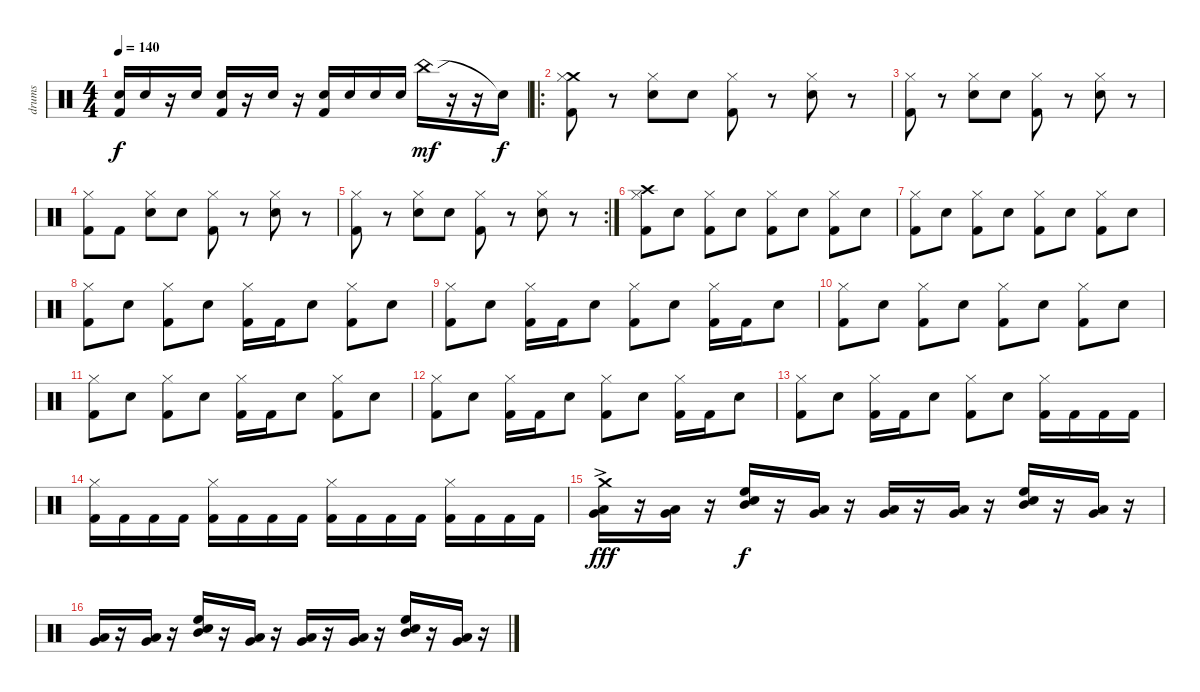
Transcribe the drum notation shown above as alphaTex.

\track ("drums" "drums") {instrument percussion}
\staff {score}
\articulation defaults
\ts (4 4)
\tempo 140
\clef neutral
\ks c
("Electric Snare (hit)" "Kick (hit) 2").16{dy f} "Electric Snare (hit)".16 r.16 "Electric Snare (hit)".16 ("Electric Snare (hit)" "Kick (hit) 2").16 r.16 "Electric Snare (hit)".16 r.16 ("Electric Snare (hit)" "Kick (hit) 2").16 "Electric Snare (hit)".16 "Electric Snare (hit)".16 "Electric Snare (hit)".16 "China (hit)"{sou}.16{dy mf} r.16 r.16 "Snare (hit)"{t}.16{dy f} |
\ro
("Crash medium (hit)" "Hi-Hat (closed)" "Kick (hit) 2").8 r.8 ("Hi-Hat (closed)" "Electric Snare (hit)").8 "Electric Snare (hit)".8 ("Hi-Hat (closed)" "Kick (hit) 2").8 r.8 ("Hi-Hat (closed)" "Electric Snare (hit)").8 r.8 |
("Hi-Hat (closed)" "Kick (hit) 2").8 r.8 ("Hi-Hat (closed)" "Electric Snare (hit)").8 "Electric Snare (hit)".8 ("Hi-Hat (closed)" "Kick (hit) 2").8 r.8 ("Hi-Hat (closed)" "Electric Snare (hit)").8 r.8 |
("Hi-Hat (closed)" "Kick (hit) 2").8 "Kick (hit) 2".8 ("Hi-Hat (closed)" "Electric Snare (hit)").8 "Electric Snare (hit)".8 ("Hi-Hat (closed)" "Kick (hit) 2").8 r.8 ("Hi-Hat (closed)" "Electric Snare (hit)").8 r.8 |
\rc 2
("Hi-Hat (closed)" "Kick (hit) 2").8 r.8 ("Hi-Hat (closed)" "Electric Snare (hit)").8 "Electric Snare (hit)".8 ("Hi-Hat (closed)" "Kick (hit) 2").8 r.8 ("Hi-Hat (closed)" "Electric Snare (hit)").8 r.8 |
("Crash high (hit)" "Hi-Hat (closed)" "Kick (hit) 2").8 "Electric Snare (hit)".8 ("Hi-Hat (closed)" "Kick (hit) 2").8 "Electric Snare (hit)".8 ("Hi-Hat (closed)" "Kick (hit) 2").8 "Electric Snare (hit)".8 ("Hi-Hat (closed)" "Kick (hit) 2").8 "Electric Snare (hit)".8 |
("Hi-Hat (closed)" "Kick (hit) 2").8 "Electric Snare (hit)".8 ("Hi-Hat (closed)" "Kick (hit) 2").8 "Electric Snare (hit)".8 ("Hi-Hat (closed)" "Kick (hit) 2").8 "Electric Snare (hit)".8 ("Hi-Hat (closed)" "Kick (hit) 2").8 "Electric Snare (hit)".8 |
("Hi-Hat (closed)" "Kick (hit) 2").8 "Electric Snare (hit)".8 ("Hi-Hat (closed)" "Kick (hit) 2").8 "Electric Snare (hit)".8 ("Hi-Hat (closed)" "Kick (hit) 2").16 "Kick (hit) 2".16 "Electric Snare (hit)".8 ("Hi-Hat (closed)" "Kick (hit) 2").8 "Electric Snare (hit)".8 |
("Hi-Hat (closed)" "Kick (hit) 2").8 "Electric Snare (hit)".8 ("Hi-Hat (closed)" "Kick (hit) 2").16 "Kick (hit) 2".16 "Electric Snare (hit)".8 ("Hi-Hat (closed)" "Kick (hit) 2").8 "Electric Snare (hit)".8 ("Hi-Hat (closed)" "Kick (hit) 2").16 "Kick (hit) 2".16 "Electric Snare (hit)".8 |
("Hi-Hat (closed)" "Kick (hit) 2").8 "Electric Snare (hit)".8 ("Hi-Hat (closed)" "Kick (hit) 2").8 "Electric Snare (hit)".8 ("Hi-Hat (closed)" "Kick (hit) 2").8 "Electric Snare (hit)".8 ("Hi-Hat (closed)" "Kick (hit) 2").8 "Electric Snare (hit)".8 |
("Hi-Hat (closed)" "Kick (hit) 2").8 "Electric Snare (hit)".8 ("Hi-Hat (closed)" "Kick (hit) 2").8 "Electric Snare (hit)".8 ("Hi-Hat (closed)" "Kick (hit) 2").16 "Kick (hit) 2".16 "Electric Snare (hit)".8 ("Hi-Hat (closed)" "Kick (hit) 2").8 "Electric Snare (hit)".8 |
("Hi-Hat (closed)" "Kick (hit) 2").8 "Electric Snare (hit)".8 ("Hi-Hat (closed)" "Kick (hit) 2").16 "Kick (hit) 2".16 "Electric Snare (hit)".8 ("Hi-Hat (closed)" "Kick (hit) 2").8 "Electric Snare (hit)".8 ("Hi-Hat (closed)" "Kick (hit) 2").16 "Kick (hit) 2".16 "Electric Snare (hit)".8 |
("Hi-Hat (closed)" "Kick (hit) 2").8 "Electric Snare (hit)".8 ("Hi-Hat (closed)" "Kick (hit) 2").16 "Kick (hit) 2".16 "Electric Snare (hit)".8 ("Hi-Hat (closed)" "Kick (hit) 2").8 "Electric Snare (hit)".8 ("Hi-Hat (closed)" "Kick (hit) 2").16 "Kick (hit) 2".16 "Kick (hit) 2".16 "Kick (hit) 2".16 |
("Hi-Hat (closed)" "Kick (hit) 2").16 "Kick (hit) 2".16 "Kick (hit) 2".16 "Kick (hit) 2".16 ("Hi-Hat (closed)" "Kick (hit) 2").16 "Kick (hit) 2".16 "Kick (hit) 2".16 "Kick (hit) 2".16 ("Hi-Hat (closed)" "Kick (hit) 2").16 "Kick (hit) 2".16 "Kick (hit) 2".16 "Kick (hit) 2".16 ("Hi-Hat (closed)" "Kick (hit) 2").16 "Kick (hit) 2".16 "Kick (hit) 2".16 "Kick (hit) 2".16 |
("Crash medium (hit)"{ac} "Very Low Tom (hit)" "Low Tom (hit)").16{dy fff} r.16 ("Very Low Tom (hit)" "Low Tom (hit)").16 r.16 ("High Floor Tom (hit)" "Electric Snare (hit)" "Mid Tom (hit)").16{dy f} r.16 ("Very Low Tom (hit)" "Low Tom (hit)").16 r.16 ("Very Low Tom (hit)" "Low Tom (hit)").16 r.16 ("Very Low Tom (hit)" "Low Tom (hit)").16 r.16 ("High Floor Tom (hit)" "Electric Snare (hit)" "Mid Tom (hit)").16 r.16 ("Very Low Tom (hit)" "Low Tom (hit)").16 r.16 |
("Very Low Tom (hit)" "Low Tom (hit)").16 r.16 ("Very Low Tom (hit)" "Low Tom (hit)").16 r.16 ("High Floor Tom (hit)" "Electric Snare (hit)" "Mid Tom (hit)").16 r.16 ("Very Low Tom (hit)" "Low Tom (hit)").16 r.16 ("Very Low Tom (hit)" "Low Tom (hit)").16 r.16 ("Very Low Tom (hit)" "Low Tom (hit)").16 r.16 ("High Floor Tom (hit)" "Electric Snare (hit)" "Mid Tom (hit)").16 r.16 ("Very Low Tom (hit)" "Low Tom (hit)").16 r.16
